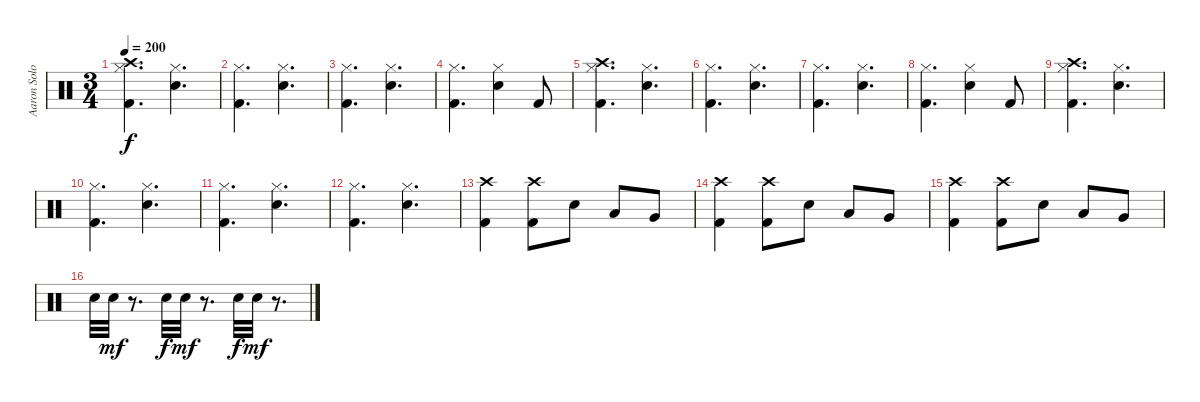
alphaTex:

\track ("Aaron Solowoniuk" "Aaron Solo") {instrument percussion}
\staff {score}
\articulation defaults
\ts (3 4)
\tempo 200
\clef neutral
\ks c
("Crash high (hit)" "Hi-Hat (closed)" "Kick (hit) 2").4{d dy f} ("Hi-Hat (closed)" "Snare (hit) 2").4{d} |
("Hi-Hat (closed)" "Kick (hit) 2").4{d} ("Hi-Hat (closed)" "Snare (hit) 2").4{d} |
("Hi-Hat (closed)" "Kick (hit) 2").4{d} ("Hi-Hat (closed)" "Snare (hit) 2").4{d} |
("Hi-Hat (closed)" "Kick (hit) 2").4{d} ("Hi-Hat (closed)" "Snare (hit) 2").4 "Kick (hit) 2".8 |
("Crash high (hit)" "Hi-Hat (closed)" "Kick (hit) 2").4{d} ("Hi-Hat (closed)" "Snare (hit) 2").4{d} |
("Hi-Hat (closed)" "Kick (hit) 2").4{d} ("Hi-Hat (closed)" "Snare (hit) 2").4{d} |
("Hi-Hat (closed)" "Kick (hit) 2").4{d} ("Hi-Hat (closed)" "Snare (hit) 2").4{d} |
("Hi-Hat (closed)" "Kick (hit) 2").4{d} ("Hi-Hat (closed)" "Snare (hit) 2").4 "Kick (hit) 2".8 |
("Crash high (hit)" "Hi-Hat (closed)" "Kick (hit) 2").4{d} ("Hi-Hat (closed)" "Snare (hit) 2").4{d} |
("Hi-Hat (closed)" "Kick (hit) 2").4{d} ("Hi-Hat (closed)" "Snare (hit) 2").4{d} |
("Hi-Hat (closed)" "Kick (hit) 2").4{d} ("Hi-Hat (closed)" "Snare (hit) 2").4{d} |
("Hi-Hat (closed)" "Kick (hit) 2").4{d} ("Hi-Hat (closed)" "Snare (hit) 2").4{d} |
("Crash high (hit)" "Kick (hit) 2").4 ("Crash high (hit)" "Kick (hit) 2").8 "Snare (hit) 2".8 "Low Tom (hit)".8 "Very Low Tom (hit)".8 |
("Crash high (hit)" "Kick (hit) 2").4 ("Crash high (hit)" "Kick (hit) 2").8 "Snare (hit) 2".8 "Low Tom (hit)".8 "Very Low Tom (hit)".8 |
("Crash high (hit)" "Kick (hit) 2").4 ("Crash high (hit)" "Kick (hit) 2").8 "Snare (hit) 2".8 "Low Tom (hit)".8 "Very Low Tom (hit)".8 |
"Snare (hit) 2".32 "Snare (hit) 2".32{dy mf} r.8{d} "Snare (hit) 2".32{dy f} "Snare (hit) 2".32{dy mf} r.8{d} "Snare (hit) 2".32{dy f} "Snare (hit) 2".32{dy mf} r.8{d}
